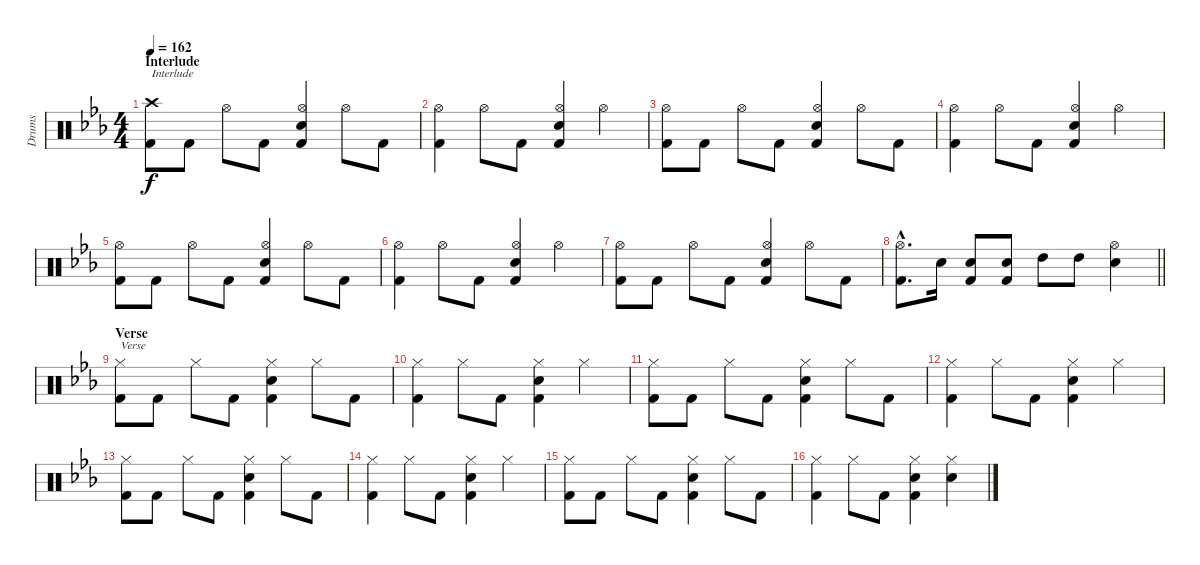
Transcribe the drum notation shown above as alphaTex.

\track ("Drums" "Drums") {instrument percussion}
\staff {score}
\articulation defaults
\ts (4 4)
\section ("" "Interlude")
\tempo 162
\clef neutral
\ks eb
("Crash high (hit)" "Kick (hit) 2").8{txt "Interlude" dy f} "Kick (hit) 2".8 "Hi-Hat (open)".8 "Kick (hit) 2".8 ("Hi-Hat (open)" "Electric Snare (hit)" "Kick (hit) 2").4 "Hi-Hat (open)".8 "Kick (hit) 2".8 |
("Hi-Hat (open)" "Kick (hit) 2").4 "Hi-Hat (open)".8 "Kick (hit) 2".8 ("Hi-Hat (open)" "Electric Snare (hit)" "Kick (hit) 2").4 "Hi-Hat (open)".4 |
("Hi-Hat (open)" "Kick (hit) 2").8 "Kick (hit) 2".8 "Hi-Hat (open)".8 "Kick (hit) 2".8 ("Hi-Hat (open)" "Electric Snare (hit)" "Kick (hit) 2").4 "Hi-Hat (open)".8 "Kick (hit) 2".8 |
("Hi-Hat (open)" "Kick (hit) 2").4 "Hi-Hat (open)".8 "Kick (hit) 2".8 ("Hi-Hat (open)" "Electric Snare (hit)" "Kick (hit) 2").4 "Hi-Hat (open)".4 |
("Hi-Hat (open)" "Kick (hit) 2").8 "Kick (hit) 2".8 "Hi-Hat (open)".8 "Kick (hit) 2".8 ("Hi-Hat (open)" "Electric Snare (hit)" "Kick (hit) 2").4 "Hi-Hat (open)".8 "Kick (hit) 2".8 |
("Hi-Hat (open)" "Kick (hit) 2").4 "Hi-Hat (open)".8 "Kick (hit) 2".8 ("Hi-Hat (open)" "Electric Snare (hit)" "Kick (hit) 2").4 "Hi-Hat (open)".4 |
("Hi-Hat (open)" "Kick (hit) 2").8 "Kick (hit) 2".8 "Hi-Hat (open)".8 "Kick (hit) 2".8 ("Hi-Hat (open)" "Electric Snare (hit)" "Kick (hit) 2").4 "Hi-Hat (open)".8 "Kick (hit) 2".8 |
\barLineRight lightlight
("Hi-Hat (open)"{hac} "Kick (hit) 2"{hac}).8{d} "Electric Snare (hit)".16 ("Electric Snare (hit)" "Kick (hit) 2").8 ("Electric Snare (hit)" "Kick (hit) 2").8 "High Tom (hit)".8 "High Tom (hit)".8 ("Hi-Hat (open)" "Electric Snare (hit)").4 |
\section ("" "Verse")
("Hi-Hat (closed)" "Kick (hit) 2").8{txt "Verse"} "Kick (hit) 2".8 "Hi-Hat (closed)".8 "Kick (hit) 2".8 ("Hi-Hat (closed)" "Electric Snare (hit)" "Kick (hit) 2").4 "Hi-Hat (closed)".8 "Kick (hit) 2".8 |
("Hi-Hat (closed)" "Kick (hit) 2").4 "Hi-Hat (closed)".8 "Kick (hit) 2".8 ("Hi-Hat (closed)" "Electric Snare (hit)" "Kick (hit) 2").4 "Hi-Hat (closed)".4 |
("Hi-Hat (closed)" "Kick (hit) 2").8 "Kick (hit) 2".8 "Hi-Hat (closed)".8 "Kick (hit) 2".8 ("Hi-Hat (closed)" "Electric Snare (hit)" "Kick (hit) 2").4 "Hi-Hat (closed)".8 "Kick (hit) 2".8 |
("Hi-Hat (closed)" "Kick (hit) 2").4 "Hi-Hat (closed)".8 "Kick (hit) 2".8 ("Hi-Hat (closed)" "Electric Snare (hit)" "Kick (hit) 2").4 "Hi-Hat (closed)".4 |
("Hi-Hat (closed)" "Kick (hit) 2").8 "Kick (hit) 2".8 "Hi-Hat (closed)".8 "Kick (hit) 2".8 ("Hi-Hat (closed)" "Electric Snare (hit)" "Kick (hit) 2").4 "Hi-Hat (closed)".8 "Kick (hit) 2".8 |
("Hi-Hat (closed)" "Kick (hit) 2").4 "Hi-Hat (closed)".8 "Kick (hit) 2".8 ("Hi-Hat (closed)" "Electric Snare (hit)" "Kick (hit) 2").4 "Hi-Hat (closed)".4 |
("Hi-Hat (closed)" "Kick (hit) 2").8 "Kick (hit) 2".8 "Hi-Hat (closed)".8 "Kick (hit) 2".8 ("Hi-Hat (closed)" "Electric Snare (hit)" "Kick (hit) 2").4 "Hi-Hat (closed)".8 "Kick (hit) 2".8 |
("Hi-Hat (closed)" "Kick (hit) 2").4 "Hi-Hat (closed)".8 "Kick (hit) 2".8 ("Hi-Hat (closed)" "Electric Snare (hit)" "Kick (hit) 2").4 ("Hi-Hat (closed)" "Electric Snare (hit)").4
